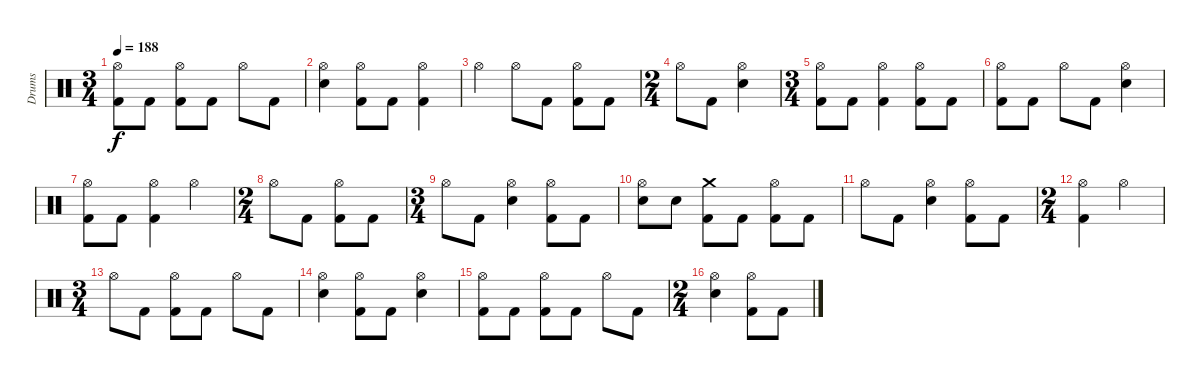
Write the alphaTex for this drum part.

\track ("Drums" "Drums") {instrument percussion}
\staff {score}
\articulation defaults
\ts (3 4)
\tempo 188
\clef neutral
\ks c
("Hi-Hat (open)" "Kick (hit) 2").8{dy f} "Kick (hit) 2".8 ("Hi-Hat (open)" "Kick (hit) 2").8 "Kick (hit) 2".8 "Hi-Hat (open)".8 "Kick (hit) 2".8 |
("Electric Snare (hit)" "Hi-Hat (open)").4 ("Hi-Hat (open)" "Kick (hit) 2").8 "Kick (hit) 2".8 ("Hi-Hat (open)" "Kick (hit) 2").4 |
"Hi-Hat (open)".4 "Hi-Hat (open)".8 "Kick (hit) 2".8 ("Hi-Hat (open)" "Kick (hit) 2").8 "Kick (hit) 2".8 |
\ts (2 4)
"Hi-Hat (open)".8 "Kick (hit) 2".8 ("Electric Snare (hit)" "Hi-Hat (open)").4 |
\ts (3 4)
("Hi-Hat (open)" "Kick (hit) 2").8 "Kick (hit) 2".8 ("Hi-Hat (open)" "Kick (hit) 2").4 ("Hi-Hat (open)" "Kick (hit) 2").8 "Kick (hit) 2".8 |
("Hi-Hat (open)" "Kick (hit) 2").8 "Kick (hit) 2".8 "Hi-Hat (open)".8 "Kick (hit) 2".8 ("Electric Snare (hit)" "Hi-Hat (open)").4 |
("Hi-Hat (open)" "Kick (hit) 2").8 "Kick (hit) 2".8 ("Hi-Hat (open)" "Kick (hit) 2").4 "Hi-Hat (open)".4 |
\ts (2 4)
"Hi-Hat (open)".8 "Kick (hit) 2".8 ("Hi-Hat (open)" "Kick (hit) 2").8 "Kick (hit) 2".8 |
\ts (3 4)
"Hi-Hat (open)".8 "Kick (hit) 2".8 ("Electric Snare (hit)" "Hi-Hat (open)").4 ("Hi-Hat (open)" "Kick (hit) 2").8 "Kick (hit) 2".8 |
("Electric Snare (hit)" "Hi-Hat (open)").8 "Electric Snare (hit)".8 ("Crash medium (hit)" "Kick (hit) 2").8 "Kick (hit) 2".8 ("Hi-Hat (open)" "Kick (hit) 2").8 "Kick (hit) 2".8 |
"Hi-Hat (open)".8 "Kick (hit) 2".8 ("Electric Snare (hit)" "Hi-Hat (open)").4 ("Hi-Hat (open)" "Kick (hit) 2").8 "Kick (hit) 2".8 |
\ts (2 4)
("Hi-Hat (open)" "Kick (hit) 2").4 "Hi-Hat (open)".4 |
\ts (3 4)
"Hi-Hat (open)".8 "Kick (hit) 2".8 ("Hi-Hat (open)" "Kick (hit) 2").8 "Kick (hit) 2".8 "Hi-Hat (open)".8 "Kick (hit) 2".8 |
("Electric Snare (hit)" "Hi-Hat (open)").4 ("Hi-Hat (open)" "Kick (hit) 2").8 "Kick (hit) 2".8 ("Electric Snare (hit)" "Hi-Hat (open)").4 |
("Hi-Hat (open)" "Kick (hit) 2").8 "Kick (hit) 2".8 ("Hi-Hat (open)" "Kick (hit) 2").8 "Kick (hit) 2".8 "Hi-Hat (open)".8 "Kick (hit) 2".8 |
\ts (2 4)
("Electric Snare (hit)" "Hi-Hat (open)").4 ("Hi-Hat (open)" "Kick (hit) 2").8 "Kick (hit) 2".8
